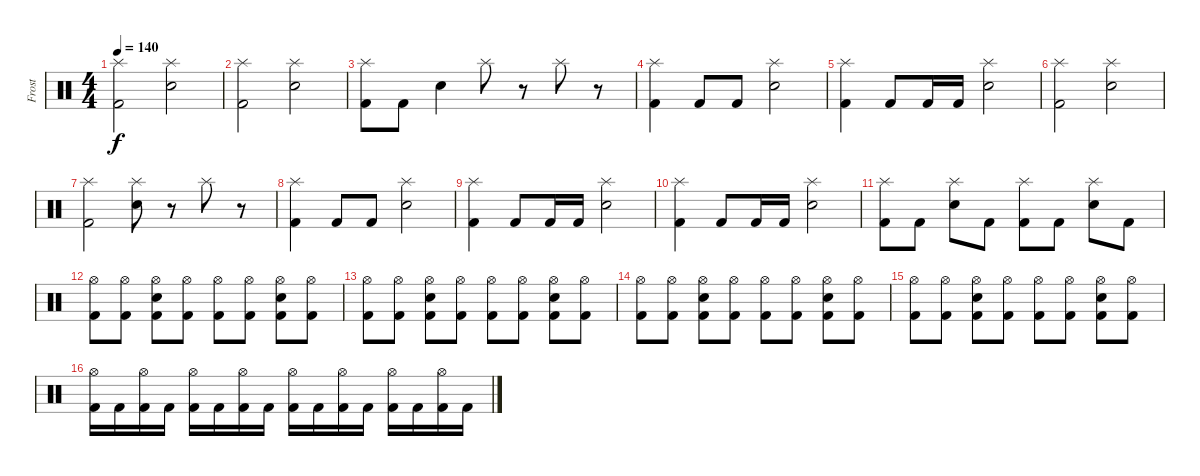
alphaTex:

\track ("Frost" "Frost") {instrument percussion}
\staff {score}
\articulation defaults
\ts (4 4)
\tempo 140
\clef neutral
\ks c
("Splash (hit)" "Kick (hit) 2").2{dy f} ("Splash (hit)" "Snare (hit) 2").2 |
("Splash (hit)" "Kick (hit) 2").2 ("Splash (hit)" "Snare (hit) 2").2 |
("Splash (hit)" "Kick (hit) 2").8 "Kick (hit) 2".8 "Snare (hit) 2".4 "Splash (hit)".8 r.8 "Splash (hit)".8 r.8 |
("Splash (hit)" "Kick (hit) 2").4 "Kick (hit) 2".8 "Kick (hit) 2".8 ("Splash (hit)" "Snare (hit) 2").2 |
("Splash (hit)" "Kick (hit) 2").4 "Kick (hit) 2".8 "Kick (hit) 2".16 "Kick (hit) 2".16 ("Splash (hit)" "Snare (hit) 2").2 |
("Splash (hit)" "Kick (hit) 2").2 ("Splash (hit)" "Snare (hit) 2").2 |
("Splash (hit)" "Kick (hit) 2").2 ("Splash (hit)" "Snare (hit) 2").8 r.8 "Splash (hit)".8 r.8 |
("Splash (hit)" "Kick (hit) 2").4 "Kick (hit) 2".8 "Kick (hit) 2".8 ("Splash (hit)" "Snare (hit) 2").2 |
("Splash (hit)" "Kick (hit) 2").4 "Kick (hit) 2".8 "Kick (hit) 2".16 "Kick (hit) 2".16 ("Splash (hit)" "Snare (hit) 2").2 |
("Splash (hit)" "Kick (hit) 2").4 "Kick (hit) 2".8 "Kick (hit) 2".16 "Kick (hit) 2".16 ("Splash (hit)" "Snare (hit) 2").2 |
("Splash (hit)" "Kick (hit) 2").8 "Kick (hit) 2".8 ("Splash (hit)" "Snare (hit) 2").8 "Kick (hit) 2".8 ("Splash (hit)" "Kick (hit) 2").8 "Kick (hit) 2".8 ("Splash (hit)" "Snare (hit) 2").8 "Kick (hit) 2".8 |
("Hi-Hat (open)" "Kick (hit) 2").8 ("Hi-Hat (open)" "Kick (hit) 2").8 ("Hi-Hat (open)" "Kick (hit) 2" "Snare (hit) 2").8 ("Hi-Hat (open)" "Kick (hit) 2").8 ("Hi-Hat (open)" "Kick (hit) 2").8 ("Hi-Hat (open)" "Kick (hit) 2").8 ("Hi-Hat (open)" "Kick (hit) 2" "Snare (hit) 2").8 ("Hi-Hat (open)" "Kick (hit) 2").8 |
("Hi-Hat (open)" "Kick (hit) 2").8 ("Hi-Hat (open)" "Kick (hit) 2").8 ("Hi-Hat (open)" "Kick (hit) 2" "Snare (hit) 2").8 ("Hi-Hat (open)" "Kick (hit) 2").8 ("Hi-Hat (open)" "Kick (hit) 2").8 ("Hi-Hat (open)" "Kick (hit) 2").8 ("Hi-Hat (open)" "Kick (hit) 2" "Snare (hit) 2").8 ("Hi-Hat (open)" "Kick (hit) 2").8 |
("Hi-Hat (open)" "Kick (hit) 2").8 ("Hi-Hat (open)" "Kick (hit) 2").8 ("Hi-Hat (open)" "Kick (hit) 2" "Snare (hit) 2").8 ("Hi-Hat (open)" "Kick (hit) 2").8 ("Hi-Hat (open)" "Kick (hit) 2").8 ("Hi-Hat (open)" "Kick (hit) 2").8 ("Hi-Hat (open)" "Kick (hit) 2" "Snare (hit) 2").8 ("Hi-Hat (open)" "Kick (hit) 2").8 |
("Hi-Hat (open)" "Kick (hit) 2").8 ("Hi-Hat (open)" "Kick (hit) 2").8 ("Hi-Hat (open)" "Kick (hit) 2" "Snare (hit) 2").8 ("Hi-Hat (open)" "Kick (hit) 2").8 ("Hi-Hat (open)" "Kick (hit) 2").8 ("Hi-Hat (open)" "Kick (hit) 2").8 ("Hi-Hat (open)" "Kick (hit) 2" "Snare (hit) 2").8 ("Hi-Hat (open)" "Kick (hit) 2").8 |
("Hi-Hat (open)" "Kick (hit) 2").16 "Kick (hit) 2".16 ("Hi-Hat (open)" "Kick (hit) 2").16 "Kick (hit) 2".16 ("Hi-Hat (open)" "Kick (hit) 2").16 "Kick (hit) 2".16 ("Hi-Hat (open)" "Kick (hit) 2").16 "Kick (hit) 2".16 ("Hi-Hat (open)" "Kick (hit) 2").16 "Kick (hit) 2".16 ("Hi-Hat (open)" "Kick (hit) 2").16 "Kick (hit) 2".16 ("Hi-Hat (open)" "Kick (hit) 2").16 "Kick (hit) 2".16 ("Hi-Hat (open)" "Kick (hit) 2").16 "Kick (hit) 2".16
